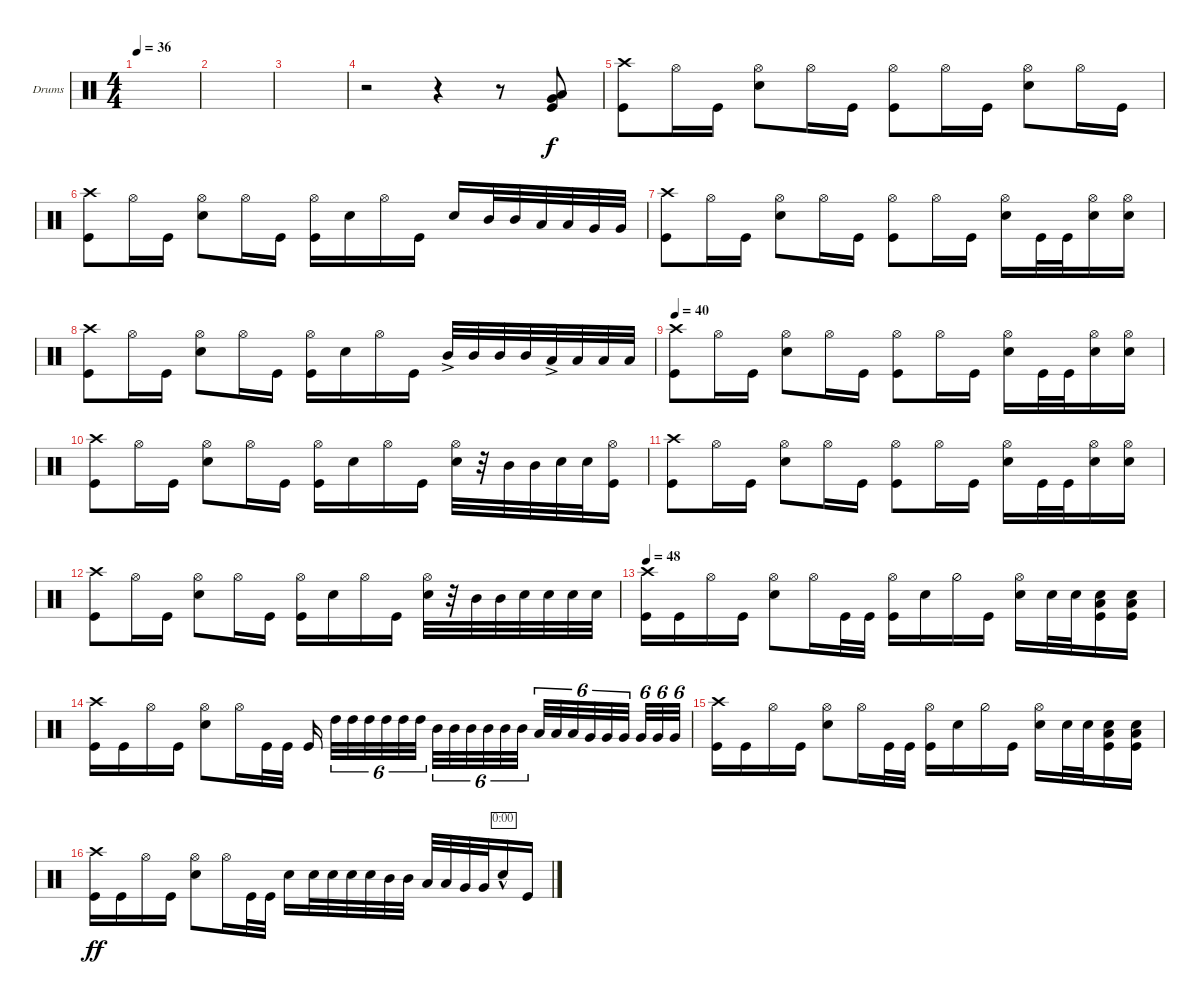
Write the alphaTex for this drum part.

\bracketExtendMode groupsimilarinstruments
\firstSystemTrackNameOrientation horizontal
\otherSystemsTrackNameOrientation horizontal
\track ("Drumkit" "Drums") {instrument percussion}
\staff {score}
\articulation defaults
\ts (4 4)
\tempo 36
\clef neutral
\ks c
|
|
|
r.2 r.4 r.8 ("Kick (hit)" "Very Low Tom (hit)" "Low Tom (hit)").8 |
("Crash high (hit)" "Kick (hit)").8 "Hi-Hat (open)".16 "Kick (hit)".16 ("Snare (hit) 2" "Hi-Hat (open)").8 "Hi-Hat (open)".16 "Kick (hit)".16 ("Hi-Hat (open)" "Kick (hit)").8 "Hi-Hat (open)".16 "Kick (hit)".16 ("Snare (hit) 2" "Hi-Hat (open)").8 "Hi-Hat (open)".16 "Kick (hit)".16 |
("Crash high (hit)" "Kick (hit)").8 "Hi-Hat (open)".16 "Kick (hit)".16 ("Snare (hit) 2" "Hi-Hat (open)").8 "Hi-Hat (open)".16 "Kick (hit)".16 ("Hi-Hat (open)" "Kick (hit)").16 "Snare (hit) 2".16 "Hi-Hat (open)".16 "Kick (hit)".16 "Snare (hit) 2".16 "Mid Tom (hit)".32 "Mid Tom (hit)".32 "Low Tom (hit)".32 "Low Tom (hit)".32 "Very Low Tom (hit)".32 "Very Low Tom (hit)".32 |
("Crash high (hit)" "Kick (hit)").8 "Hi-Hat (open)".16 "Kick (hit)".16 ("Snare (hit) 2" "Hi-Hat (open)").8 "Hi-Hat (open)".16 "Kick (hit)".16 ("Hi-Hat (open)" "Kick (hit)").8 "Hi-Hat (open)".16 "Kick (hit)".16 ("Snare (hit) 2" "Hi-Hat (open)").16 "Kick (hit)".32 "Kick (hit)".32 ("Snare (hit) 2" "Hi-Hat (open)").16 ("Snare (hit) 2" "Hi-Hat (open)").16 |
("Crash high (hit)" "Kick (hit)").8 "Hi-Hat (open)".16 "Kick (hit)".16 ("Snare (hit) 2" "Hi-Hat (open)").8 "Hi-Hat (open)".16 "Kick (hit)".16 ("Hi-Hat (open)" "Kick (hit)").16 "Snare (hit) 2".16 "Hi-Hat (open)".16 "Kick (hit)".16 "Mid Tom (hit)"{ac}.32 "Mid Tom (hit)".32 "Mid Tom (hit)".32 "Mid Tom (hit)".32 "Low Tom (hit)"{ac}.32 "Low Tom (hit)".32 "Low Tom (hit)".32 "Low Tom (hit)".32 |
\tempo 40
("Crash high (hit)" "Kick (hit)").8 "Hi-Hat (open)".16 "Kick (hit)".16 ("Snare (hit) 2" "Hi-Hat (open)").8 "Hi-Hat (open)".16 "Kick (hit)".16 ("Hi-Hat (open)" "Kick (hit)").8 "Hi-Hat (open)".16 "Kick (hit)".16 ("Snare (hit) 2" "Hi-Hat (open)").16 "Kick (hit)".32 "Kick (hit)".32 ("Snare (hit) 2" "Hi-Hat (open)").16 ("Snare (hit) 2" "Hi-Hat (open)").16 |
("Crash high (hit)" "Kick (hit)").8 "Hi-Hat (open)".16 "Kick (hit)".16 ("Snare (hit) 2" "Hi-Hat (open)").8 "Hi-Hat (open)".16 "Kick (hit)".16 ("Hi-Hat (open)" "Kick (hit)").16 "Snare (hit) 2".16 "Hi-Hat (open)".16 "Kick (hit)".16 ("Snare (hit) 2" "Hi-Hat (open)").32 r.32 "Mid Tom (hit)".32 "Mid Tom (hit)".32 "Snare (hit) 2".32 "Snare (hit) 2".32 ("Kick (hit)" "Hi-Hat (open)").16 |
("Crash high (hit)" "Kick (hit)").8 "Hi-Hat (open)".16 "Kick (hit)".16 ("Snare (hit) 2" "Hi-Hat (open)").8 "Hi-Hat (open)".16 "Kick (hit)".16 ("Hi-Hat (open)" "Kick (hit)").8 "Hi-Hat (open)".16 "Kick (hit)".16 ("Snare (hit) 2" "Hi-Hat (open)").16 "Kick (hit)".32 "Kick (hit)".32 ("Snare (hit) 2" "Hi-Hat (open)").16 ("Snare (hit) 2" "Hi-Hat (open)").16 |
("Crash high (hit)" "Kick (hit)").8 "Hi-Hat (open)".16 "Kick (hit)".16 ("Snare (hit) 2" "Hi-Hat (open)").8 "Hi-Hat (open)".16 "Kick (hit)".16 ("Hi-Hat (open)" "Kick (hit)").16 "Snare (hit) 2".16 "Hi-Hat (open)".16 "Kick (hit)".16 ("Snare (hit) 2" "Hi-Hat (open)").32 r.32 "Mid Tom (hit)".32 "Mid Tom (hit)".32 "Snare (hit) 2".32 "Snare (hit) 2".32 "Snare (hit) 2".32 "Snare (hit) 2".32 |
\tempo 48
("Kick (hit)" "Crash high (hit)").16 "Kick (hit)".16 "Hi-Hat (open)".16 "Kick (hit)".16 ("Snare (hit) 2" "Hi-Hat (open)").8 "Hi-Hat (open)".16 "Kick (hit)".32 "Kick (hit)".32 ("Kick (hit)" "Hi-Hat (open)").16 "Snare (hit) 2".16 "Hi-Hat (half)".16 "Kick (hit)".16 ("Hi-Hat (open)" "Snare (hit) 2").16 "Snare (hit) 2".32 "Snare (hit) 2".32 ("Kick (hit)" "Low Tom (hit)" "Snare (hit) 2").16 ("Kick (hit)" "Low Tom (hit)" "Snare (hit) 2").16 |
("Kick (hit)" "Crash high (hit)").16 "Kick (hit)".16 "Hi-Hat (open)".16 "Kick (hit)".16 ("Snare (hit) 2" "Hi-Hat (open)").8 "Hi-Hat (open)".16 "Kick (hit)".32 "Kick (hit)".32 "Kick (hit)".16 "High Tom (hit)".32{tu (6 4)} "High Tom (hit)".32{tu (6 4)} "High Tom (hit)".32{tu (6 4)} "High Tom (hit)".32{tu (6 4)} "High Tom (hit)".32{tu (6 4)} "High Tom (hit)".32{tu (6 4)} "Mid Tom (hit)".32{tu (6 4)} "Mid Tom (hit)".32{tu (6 4)} "Mid Tom (hit)".32{tu (6 4)} "Mid Tom (hit)".32{tu (6 4)} "Mid Tom (hit)".32{tu (6 4)} "Mid Tom (hit)".32{tu (6 4)} "Low Tom (hit)".32{tu (6 4)} "Low Tom (hit)".32{tu (6 4)} "Low Tom (hit)".32{tu (6 4)} "Very Low Tom (hit)".32{tu (6 4)} "Very Low Tom (hit)".32{tu (6 4)} "Very Low Tom (hit)".32{tu (6 4)} "Very Low Tom (hit)".32{tu (6 4)} "Very Low Tom (hit)".32{tu (6 4)} "Very Low Tom (hit)".32{tu (6 4)} |
("Kick (hit)" "Crash high (hit)").16 "Kick (hit)".16 "Hi-Hat (open)".16 "Kick (hit)".16 ("Snare (hit) 2" "Hi-Hat (open)").8 "Hi-Hat (open)".16 "Kick (hit)".32 "Kick (hit)".32 ("Kick (hit)" "Hi-Hat (open)").16 "Snare (hit) 2".16 "Hi-Hat (half)".16 "Kick (hit)".16 ("Hi-Hat (open)" "Snare (hit) 2").16 "Snare (hit) 2".32 "Snare (hit) 2".32 ("Kick (hit)" "Low Tom (hit)" "Snare (hit) 2").16 ("Kick (hit)" "Low Tom (hit)" "Snare (hit) 2").16 |
("Kick (hit)" "Crash high (hit)").16{dy ff} "Kick (hit)".16 "Hi-Hat (open)".16 "Kick (hit)".16 ("Snare (hit) 2" "Hi-Hat (open)").8 "Hi-Hat (open)".16 "Kick (hit)".32 "Kick (hit)".32 "Snare (hit) 2".16 "Snare (hit) 2".32 "Snare (hit) 2".32 "Snare (hit) 2".32 "Snare (hit) 2".32 "Mid Tom (hit)".32 "Mid Tom (hit)".32 "Low Tom (hit)".32 "Low Tom (hit)".32 "Very Low Tom (hit)".32 "Very Low Tom (hit)".32 "Snare (hit) 2"{hac}.16{timer} "Kick (hit)".16
